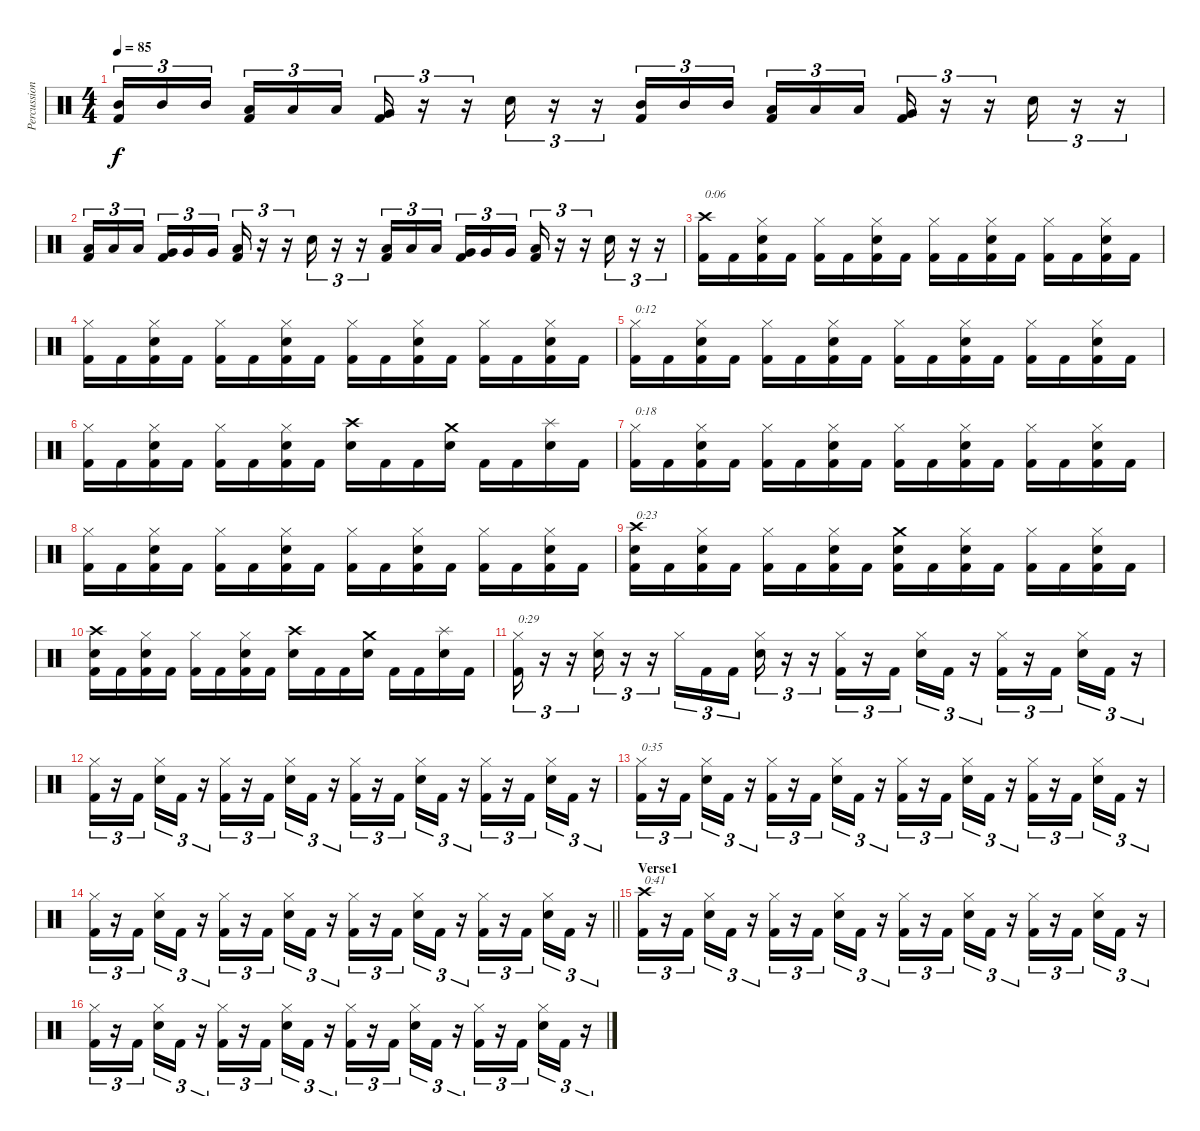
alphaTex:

\track ("Percussion" "Percussion") {instrument percussion}
\staff {score}
\articulation defaults
\ts (4 4)
\tempo 85
\clef neutral
\ks c
("Mid Tom (hit)" "Kick (hit) 2").16{tu (3 2) dy f} "Mid Tom (hit)".16{tu (3 2)} "Mid Tom (hit)".16{tu (3 2)} ("Low Tom (hit)" "Kick (hit) 2").16{tu (3 2)} "Low Tom (hit)".16{tu (3 2)} "Low Tom (hit)".16{tu (3 2)} ("Very Low Tom (hit)" "Kick (hit) 2").16{tu (3 2)} r.16{tu (3 2)} r.16{tu (3 2)} "Snare (hit) 2".16{tu (3 2)} r.16{tu (3 2)} r.16{tu (3 2)} ("Mid Tom (hit)" "Kick (hit) 2").16{tu (3 2)} "Mid Tom (hit)".16{tu (3 2)} "Mid Tom (hit)".16{tu (3 2)} ("Low Tom (hit)" "Kick (hit) 2").16{tu (3 2)} "Low Tom (hit)".16{tu (3 2)} "Low Tom (hit)".16{tu (3 2)} ("Very Low Tom (hit)" "Kick (hit) 2").16{tu (3 2)} r.16{tu (3 2)} r.16{tu (3 2)} "Snare (hit) 2".16{tu (3 2)} r.16{tu (3 2)} r.16{tu (3 2)} |
("Low Tom (hit)" "Kick (hit) 2").16{tu (3 2)} "Low Tom (hit)".16{tu (3 2)} "Low Tom (hit)".16{tu (3 2)} ("Very Low Tom (hit)" "Kick (hit) 2").16{tu (3 2)} "Very Low Tom (hit)".16{tu (3 2)} "Very Low Tom (hit)".16{tu (3 2)} ("Low Floor Tom (hit)" "Kick (hit) 2").16{tu (3 2)} r.16{tu (3 2)} r.16{tu (3 2)} "Snare (hit) 2".16{tu (3 2)} r.16{tu (3 2)} r.16{tu (3 2)} ("Low Tom (hit)" "Kick (hit) 2").16{tu (3 2)} "Low Tom (hit)".16{tu (3 2)} "Low Tom (hit)".16{tu (3 2)} ("Very Low Tom (hit)" "Kick (hit) 2").16{tu (3 2)} "Very Low Tom (hit)".16{tu (3 2)} "Very Low Tom (hit)".16{tu (3 2)} ("Low Floor Tom (hit)" "Kick (hit) 2").16{tu (3 2)} r.16{tu (3 2)} r.16{tu (3 2)} "Snare (hit) 2".16{tu (3 2)} r.16{tu (3 2)} r.16{tu (3 2)} |
("Crash high (hit)" "Kick (hit) 2").16{txt "0:06"} "Kick (hit) 2".16 ("Hi-Hat (closed)" "Snare (hit) 2" "Kick (hit) 2").16 "Kick (hit) 2".16 ("Hi-Hat (closed)" "Kick (hit) 2").16 "Kick (hit) 2".16 ("Hi-Hat (closed)" "Snare (hit) 2" "Kick (hit) 2").16 "Kick (hit) 2".16 ("Hi-Hat (closed)" "Kick (hit) 2").16 "Kick (hit) 2".16 ("Hi-Hat (closed)" "Snare (hit) 2" "Kick (hit) 2").16 "Kick (hit) 2".16 ("Hi-Hat (closed)" "Kick (hit) 2").16 "Kick (hit) 2".16 ("Hi-Hat (closed)" "Snare (hit) 2" "Kick (hit) 2").16 "Kick (hit) 2".16 |
("Hi-Hat (closed)" "Kick (hit) 2").16 "Kick (hit) 2".16 ("Hi-Hat (closed)" "Snare (hit) 2" "Kick (hit) 2").16 "Kick (hit) 2".16 ("Hi-Hat (closed)" "Kick (hit) 2").16 "Kick (hit) 2".16 ("Hi-Hat (closed)" "Snare (hit) 2" "Kick (hit) 2").16 "Kick (hit) 2".16 ("Hi-Hat (closed)" "Kick (hit) 2").16 "Kick (hit) 2".16 ("Hi-Hat (closed)" "Snare (hit) 2" "Kick (hit) 2").16 "Kick (hit) 2".16 ("Hi-Hat (closed)" "Kick (hit) 2").16 "Kick (hit) 2".16 ("Hi-Hat (closed)" "Snare (hit) 2" "Kick (hit) 2").16 "Kick (hit) 2".16 |
("Hi-Hat (closed)" "Kick (hit) 2").16{txt "0:12"} "Kick (hit) 2".16 ("Hi-Hat (closed)" "Snare (hit) 2" "Kick (hit) 2").16 "Kick (hit) 2".16 ("Hi-Hat (closed)" "Kick (hit) 2").16 "Kick (hit) 2".16 ("Hi-Hat (closed)" "Snare (hit) 2" "Kick (hit) 2").16 "Kick (hit) 2".16 ("Hi-Hat (closed)" "Kick (hit) 2").16 "Kick (hit) 2".16 ("Hi-Hat (closed)" "Snare (hit) 2" "Kick (hit) 2").16 "Kick (hit) 2".16 ("Hi-Hat (closed)" "Kick (hit) 2").16 "Kick (hit) 2".16 ("Hi-Hat (closed)" "Snare (hit) 2" "Kick (hit) 2").16 "Kick (hit) 2".16 |
("Hi-Hat (closed)" "Kick (hit) 2").16 "Kick (hit) 2".16 ("Hi-Hat (closed)" "Snare (hit) 2" "Kick (hit) 2").16 "Kick (hit) 2".16 ("Hi-Hat (closed)" "Kick (hit) 2").16 "Kick (hit) 2".16 ("Hi-Hat (closed)" "Snare (hit) 2" "Kick (hit) 2").16 "Kick (hit) 2".16 ("Crash high (hit)" "Snare (hit) 2").16 "Kick (hit) 2".16 "Kick (hit) 2".16 ("Crash medium (hit)" "Snare (hit) 2").16 "Kick (hit) 2".16 "Kick (hit) 2".16 ("Splash (hit)" "Snare (hit) 2").16 "Kick (hit) 2".16 |
("Hi-Hat (closed)" "Kick (hit) 2").16{txt "0:18"} "Kick (hit) 2".16 ("Hi-Hat (closed)" "Snare (hit) 2" "Kick (hit) 2").16 "Kick (hit) 2".16 ("Hi-Hat (closed)" "Kick (hit) 2").16 "Kick (hit) 2".16 ("Hi-Hat (closed)" "Snare (hit) 2" "Kick (hit) 2").16 "Kick (hit) 2".16 ("Hi-Hat (closed)" "Kick (hit) 2").16 "Kick (hit) 2".16 ("Hi-Hat (closed)" "Snare (hit) 2" "Kick (hit) 2").16 "Kick (hit) 2".16 ("Hi-Hat (closed)" "Kick (hit) 2").16 "Kick (hit) 2".16 ("Hi-Hat (closed)" "Snare (hit) 2" "Kick (hit) 2").16 "Kick (hit) 2".16 |
("Hi-Hat (closed)" "Kick (hit) 2").16 "Kick (hit) 2".16 ("Hi-Hat (closed)" "Snare (hit) 2" "Kick (hit) 2").16 "Kick (hit) 2".16 ("Hi-Hat (closed)" "Kick (hit) 2").16 "Kick (hit) 2".16 ("Hi-Hat (closed)" "Snare (hit) 2" "Kick (hit) 2").16 "Kick (hit) 2".16 ("Hi-Hat (closed)" "Kick (hit) 2").16 "Kick (hit) 2".16 ("Hi-Hat (closed)" "Snare (hit) 2" "Kick (hit) 2").16 "Kick (hit) 2".16 ("Hi-Hat (closed)" "Kick (hit) 2").16 "Kick (hit) 2".16 ("Hi-Hat (closed)" "Snare (hit) 2" "Kick (hit) 2").16 "Kick (hit) 2".16 |
("Crash high (hit)" "Snare (hit) 2" "Kick (hit) 2").16{txt "0:23"} "Kick (hit) 2".16 ("Hi-Hat (closed)" "Snare (hit) 2" "Kick (hit) 2").16 "Kick (hit) 2".16 ("Hi-Hat (closed)" "Kick (hit) 2").16 "Kick (hit) 2".16 ("Hi-Hat (closed)" "Snare (hit) 2" "Kick (hit) 2").16 "Kick (hit) 2".16 ("Crash medium (hit)" "Snare (hit) 2" "Kick (hit) 2").16 "Kick (hit) 2".16 ("Hi-Hat (closed)" "Snare (hit) 2" "Kick (hit) 2").16 "Kick (hit) 2".16 ("Hi-Hat (closed)" "Kick (hit) 2").16 "Kick (hit) 2".16 ("Hi-Hat (closed)" "Snare (hit) 2" "Kick (hit) 2").16 "Kick (hit) 2".16 |
("Crash high (hit)" "Snare (hit) 2" "Kick (hit) 2").16 "Kick (hit) 2".16 ("Hi-Hat (closed)" "Snare (hit) 2" "Kick (hit) 2").16 "Kick (hit) 2".16 ("Hi-Hat (closed)" "Kick (hit) 2").16 "Kick (hit) 2".16 ("Hi-Hat (closed)" "Snare (hit) 2" "Kick (hit) 2").16 "Kick (hit) 2".16 ("Crash high (hit)" "Snare (hit) 2").16 "Kick (hit) 2".16 "Kick (hit) 2".16 ("Crash medium (hit)" "Snare (hit) 2").16 "Kick (hit) 2".16 "Kick (hit) 2".16 ("Splash (hit)" "Snare (hit) 2").16 "Kick (hit) 2".16 |
("Hi-Hat (closed)" "Kick (hit) 2").16{tu (3 2) txt "0:29"} r.16{tu (3 2)} r.16{tu (3 2)} ("Hi-Hat (closed)" "Snare (hit) 2").16{tu (3 2)} r.16{tu (3 2)} r.16{tu (3 2)} "Hi-Hat (closed)".16{tu (3 2)} "Kick (hit) 2".16{tu (3 2)} "Kick (hit) 2".16{tu (3 2)} ("Hi-Hat (closed)" "Snare (hit) 2").16{tu (3 2)} r.16{tu (3 2)} r.16{tu (3 2)} ("Hi-Hat (closed)" "Kick (hit) 2").16{tu (3 2)} r.16{tu (3 2)} "Kick (hit) 2".16{tu (3 2)} ("Hi-Hat (closed)" "Snare (hit) 2").16{tu (3 2)} "Kick (hit) 2".16{tu (3 2)} r.16{tu (3 2)} ("Hi-Hat (closed)" "Kick (hit) 2").16{tu (3 2)} r.16{tu (3 2)} "Kick (hit) 2".16{tu (3 2)} ("Hi-Hat (closed)" "Snare (hit) 2").16{tu (3 2)} "Kick (hit) 2".16{tu (3 2)} r.16{tu (3 2)} |
("Hi-Hat (closed)" "Kick (hit) 2").16{tu (3 2)} r.16{tu (3 2)} "Kick (hit) 2".16{tu (3 2)} ("Hi-Hat (closed)" "Snare (hit) 2").16{tu (3 2)} "Kick (hit) 2".16{tu (3 2)} r.16{tu (3 2)} ("Hi-Hat (closed)" "Kick (hit) 2").16{tu (3 2)} r.16{tu (3 2)} "Kick (hit) 2".16{tu (3 2)} ("Hi-Hat (closed)" "Snare (hit) 2").16{tu (3 2)} "Kick (hit) 2".16{tu (3 2)} r.16{tu (3 2)} ("Hi-Hat (closed)" "Kick (hit) 2").16{tu (3 2)} r.16{tu (3 2)} "Kick (hit) 2".16{tu (3 2)} ("Hi-Hat (closed)" "Snare (hit) 2").16{tu (3 2)} "Kick (hit) 2".16{tu (3 2)} r.16{tu (3 2)} ("Hi-Hat (closed)" "Kick (hit) 2").16{tu (3 2)} r.16{tu (3 2)} "Kick (hit) 2".16{tu (3 2)} ("Hi-Hat (closed)" "Snare (hit) 2").16{tu (3 2)} "Kick (hit) 2".16{tu (3 2)} r.16{tu (3 2)} |
("Hi-Hat (closed)" "Kick (hit) 2").16{tu (3 2) txt "0:35"} r.16{tu (3 2)} "Kick (hit) 2".16{tu (3 2)} ("Hi-Hat (closed)" "Snare (hit) 2").16{tu (3 2)} "Kick (hit) 2".16{tu (3 2)} r.16{tu (3 2)} ("Hi-Hat (closed)" "Kick (hit) 2").16{tu (3 2)} r.16{tu (3 2)} "Kick (hit) 2".16{tu (3 2)} ("Hi-Hat (closed)" "Snare (hit) 2").16{tu (3 2)} "Kick (hit) 2".16{tu (3 2)} r.16{tu (3 2)} ("Hi-Hat (closed)" "Kick (hit) 2").16{tu (3 2)} r.16{tu (3 2)} "Kick (hit) 2".16{tu (3 2)} ("Hi-Hat (closed)" "Snare (hit) 2").16{tu (3 2)} "Kick (hit) 2".16{tu (3 2)} r.16{tu (3 2)} ("Hi-Hat (closed)" "Kick (hit) 2").16{tu (3 2)} r.16{tu (3 2)} "Kick (hit) 2".16{tu (3 2)} ("Hi-Hat (closed)" "Snare (hit) 2").16{tu (3 2)} "Kick (hit) 2".16{tu (3 2)} r.16{tu (3 2)} |
\barLineRight lightlight
("Hi-Hat (closed)" "Kick (hit) 2").16{tu (3 2)} r.16{tu (3 2)} "Kick (hit) 2".16{tu (3 2)} ("Hi-Hat (closed)" "Snare (hit) 2").16{tu (3 2)} "Kick (hit) 2".16{tu (3 2)} r.16{tu (3 2)} ("Hi-Hat (closed)" "Kick (hit) 2").16{tu (3 2)} r.16{tu (3 2)} "Kick (hit) 2".16{tu (3 2)} ("Hi-Hat (closed)" "Snare (hit) 2").16{tu (3 2)} "Kick (hit) 2".16{tu (3 2)} r.16{tu (3 2)} ("Hi-Hat (closed)" "Kick (hit) 2").16{tu (3 2)} r.16{tu (3 2)} "Kick (hit) 2".16{tu (3 2)} ("Hi-Hat (closed)" "Snare (hit) 2").16{tu (3 2)} "Kick (hit) 2".16{tu (3 2)} r.16{tu (3 2)} ("Hi-Hat (closed)" "Kick (hit) 2").16{tu (3 2)} r.16{tu (3 2)} "Kick (hit) 2".16{tu (3 2)} ("Hi-Hat (closed)" "Snare (hit) 2").16{tu (3 2)} "Kick (hit) 2".16{tu (3 2)} r.16{tu (3 2)} |
\section ("" "Verse1")
("Crash high (hit)" "Kick (hit) 2").16{tu (3 2) txt "0:41"} r.16{tu (3 2)} "Kick (hit) 2".16{tu (3 2)} ("Hi-Hat (closed)" "Snare (hit) 2").16{tu (3 2)} "Kick (hit) 2".16{tu (3 2)} r.16{tu (3 2)} ("Hi-Hat (closed)" "Kick (hit) 2").16{tu (3 2)} r.16{tu (3 2)} "Kick (hit) 2".16{tu (3 2)} ("Hi-Hat (closed)" "Snare (hit) 2").16{tu (3 2)} "Kick (hit) 2".16{tu (3 2)} r.16{tu (3 2)} ("Hi-Hat (closed)" "Kick (hit) 2").16{tu (3 2)} r.16{tu (3 2)} "Kick (hit) 2".16{tu (3 2)} ("Hi-Hat (closed)" "Snare (hit) 2").16{tu (3 2)} "Kick (hit) 2".16{tu (3 2)} r.16{tu (3 2)} ("Hi-Hat (closed)" "Kick (hit) 2").16{tu (3 2)} r.16{tu (3 2)} "Kick (hit) 2".16{tu (3 2)} ("Hi-Hat (closed)" "Snare (hit) 2").16{tu (3 2)} "Kick (hit) 2".16{tu (3 2)} r.16{tu (3 2)} |
("Hi-Hat (closed)" "Kick (hit) 2").16{tu (3 2)} r.16{tu (3 2)} "Kick (hit) 2".16{tu (3 2)} ("Hi-Hat (closed)" "Snare (hit) 2").16{tu (3 2)} "Kick (hit) 2".16{tu (3 2)} r.16{tu (3 2)} ("Hi-Hat (closed)" "Kick (hit) 2").16{tu (3 2)} r.16{tu (3 2)} "Kick (hit) 2".16{tu (3 2)} ("Hi-Hat (closed)" "Snare (hit) 2").16{tu (3 2)} "Kick (hit) 2".16{tu (3 2)} r.16{tu (3 2)} ("Hi-Hat (closed)" "Kick (hit) 2").16{tu (3 2)} r.16{tu (3 2)} "Kick (hit) 2".16{tu (3 2)} ("Hi-Hat (closed)" "Snare (hit) 2").16{tu (3 2)} "Kick (hit) 2".16{tu (3 2)} r.16{tu (3 2)} ("Hi-Hat (closed)" "Kick (hit) 2").16{tu (3 2)} r.16{tu (3 2)} "Kick (hit) 2".16{tu (3 2)} ("Hi-Hat (closed)" "Snare (hit) 2").16{tu (3 2)} "Kick (hit) 2".16{tu (3 2)} r.16{tu (3 2)}
